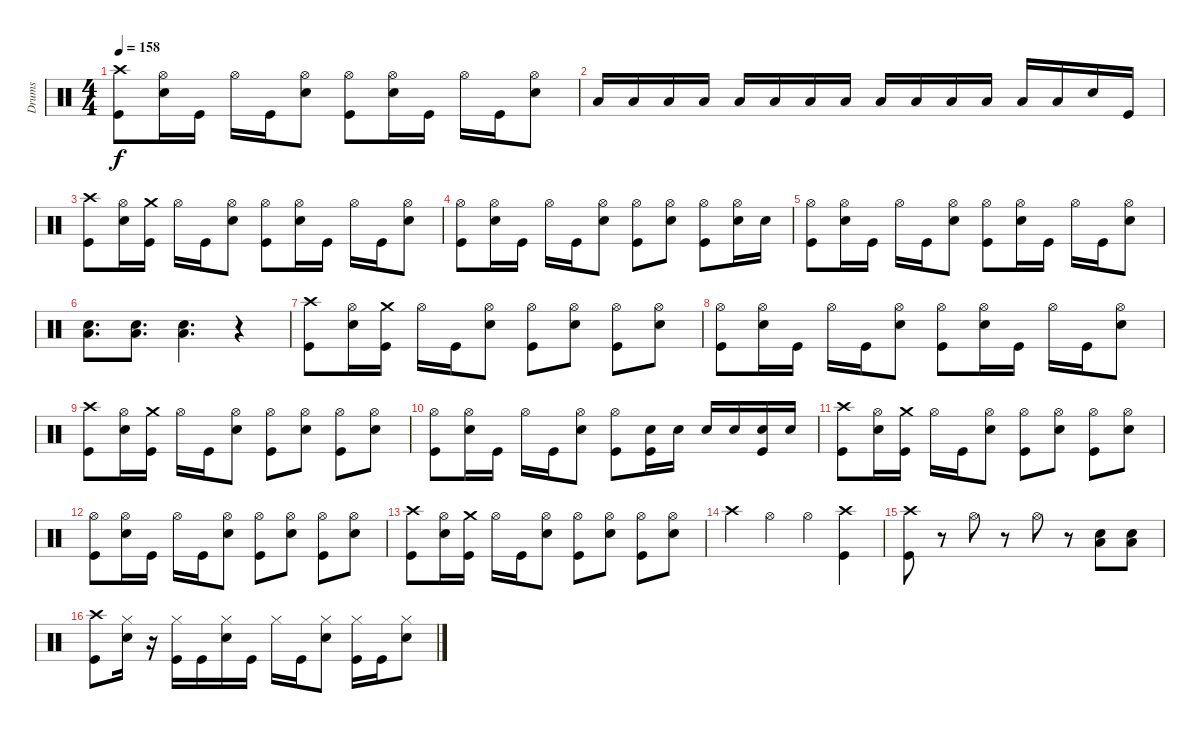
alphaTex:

\track ("Drums" "Drums") {instrument percussion}
\staff {score}
\articulation defaults
\ts (4 4)
\tempo 158
\clef neutral
\ks c
("Crash high (hit)" "Kick (hit)").8{dy f} ("Hi-Hat (open)" "Snare (hit) 2").16 "Kick (hit)".16 "Hi-Hat (open)".16 "Kick (hit)".16 ("Hi-Hat (open)" "Snare (hit) 2").8 ("Hi-Hat (open)" "Kick (hit)").8 ("Hi-Hat (open)" "Snare (hit) 2").16 "Kick (hit)".16 "Hi-Hat (open)".16 "Kick (hit)".16 ("Hi-Hat (open)" "Snare (hit) 2").8 |
"Low Tom (hit)".16 "Low Tom (hit)".16 "Low Tom (hit)".16 "Low Tom (hit)".16 "Low Tom (hit)".16 "Low Tom (hit)".16 "Low Tom (hit)".16 "Low Tom (hit)".16 "Low Tom (hit)".16 "Low Tom (hit)".16 "Low Tom (hit)".16 "Low Tom (hit)".16 "Low Tom (hit)".16 "Low Tom (hit)".16 "Snare (hit) 2".16 "Kick (hit)".16 |
("Crash high (hit)" "Kick (hit)").8 ("Hi-Hat (open)" "Snare (hit) 2").16 ("Crash medium (hit)" "Kick (hit)").16 "Hi-Hat (open)".16 "Kick (hit)".16 ("Hi-Hat (open)" "Snare (hit) 2").8 ("Hi-Hat (open)" "Kick (hit)").8 ("Hi-Hat (open)" "Snare (hit) 2").16 "Kick (hit)".16 "Hi-Hat (open)".16 "Kick (hit)".16 ("Hi-Hat (open)" "Snare (hit) 2").8 |
("Hi-Hat (open)" "Kick (hit)").8 ("Hi-Hat (open)" "Snare (hit) 2").16 "Kick (hit)".16 "Hi-Hat (open)".16 "Kick (hit)".16 ("Hi-Hat (open)" "Snare (hit) 2").8 ("Hi-Hat (open)" "Kick (hit)").8 ("Hi-Hat (open)" "Snare (hit) 2").8 ("Hi-Hat (open)" "Kick (hit)").8 ("Hi-Hat (open)" "Snare (hit) 2").16 "Snare (hit) 2".16 |
("Hi-Hat (open)" "Kick (hit)").8 ("Hi-Hat (open)" "Snare (hit) 2").16 "Kick (hit)".16 "Hi-Hat (open)".16 "Kick (hit)".16 ("Hi-Hat (open)" "Snare (hit) 2").8 ("Hi-Hat (open)" "Kick (hit)").8 ("Hi-Hat (open)" "Snare (hit) 2").16 "Kick (hit)".16 "Hi-Hat (open)".16 "Kick (hit)".16 ("Hi-Hat (open)" "Snare (hit) 2").8 |
("Snare (hit) 2" "Low Tom (hit)").8{d} ("Snare (hit) 2" "Low Tom (hit)").8{d} ("Snare (hit) 2" "Low Tom (hit)").4{d} r.4 |
("Crash high (hit)" "Kick (hit)").8 ("Hi-Hat (open)" "Snare (hit) 2").16 ("Crash medium (hit)" "Kick (hit)").16 "Hi-Hat (open)".16 "Kick (hit)".16 ("Hi-Hat (open)" "Snare (hit) 2").8 ("Hi-Hat (open)" "Kick (hit)").8 ("Hi-Hat (open)" "Snare (hit) 2").8 ("Hi-Hat (open)" "Kick (hit)").8 ("Hi-Hat (open)" "Snare (hit) 2").8 |
("Hi-Hat (open)" "Kick (hit)").8 ("Hi-Hat (open)" "Snare (hit) 2").16 "Kick (hit)".16 "Hi-Hat (open)".16 "Kick (hit)".16 ("Hi-Hat (open)" "Snare (hit) 2").8 ("Hi-Hat (open)" "Kick (hit)").8 ("Hi-Hat (open)" "Snare (hit) 2").16 "Kick (hit)".16 "Hi-Hat (open)".16 "Kick (hit)".16 ("Hi-Hat (open)" "Snare (hit) 2").8 |
("Crash high (hit)" "Kick (hit)").8 ("Hi-Hat (open)" "Snare (hit) 2").16 ("Crash medium (hit)" "Kick (hit)").16 "Hi-Hat (open)".16 "Kick (hit)".16 ("Hi-Hat (open)" "Snare (hit) 2").8 ("Hi-Hat (open)" "Kick (hit)").8 ("Hi-Hat (open)" "Snare (hit) 2").8 ("Hi-Hat (open)" "Kick (hit)").8 ("Hi-Hat (open)" "Snare (hit) 2").8 |
("Hi-Hat (open)" "Kick (hit)").8 ("Hi-Hat (open)" "Snare (hit) 2").16 "Kick (hit)".16 "Hi-Hat (open)".16 "Kick (hit)".16 ("Hi-Hat (open)" "Snare (hit) 2").8 ("Hi-Hat (open)" "Kick (hit)").8 ("Kick (hit)" "Snare (hit) 2").16 "Snare (hit) 2".16 "Snare (hit) 2".16 "Snare (hit) 2".16 ("Kick (hit)" "Snare (hit) 2").16 "Snare (hit) 2".16 |
("Crash high (hit)" "Kick (hit)").8 ("Hi-Hat (open)" "Snare (hit) 2").16 ("Crash medium (hit)" "Kick (hit)").16 "Hi-Hat (open)".16 "Kick (hit)".16 ("Hi-Hat (open)" "Snare (hit) 2").8 ("Hi-Hat (open)" "Kick (hit)").8 ("Hi-Hat (open)" "Snare (hit) 2").8 ("Hi-Hat (open)" "Kick (hit)").8 ("Hi-Hat (open)" "Snare (hit) 2").8 |
("Hi-Hat (open)" "Kick (hit)").8 ("Hi-Hat (open)" "Snare (hit) 2").16 "Kick (hit)".16 "Hi-Hat (open)".16 "Kick (hit)".16 ("Hi-Hat (open)" "Snare (hit) 2").8 ("Hi-Hat (open)" "Kick (hit)").8 ("Hi-Hat (open)" "Snare (hit) 2").8 ("Hi-Hat (open)" "Kick (hit)").8 ("Hi-Hat (open)" "Snare (hit) 2").8 |
("Crash high (hit)" "Kick (hit)").8 ("Hi-Hat (open)" "Snare (hit) 2").16 ("Crash medium (hit)" "Kick (hit)").16 "Hi-Hat (open)".16 "Kick (hit)".16 ("Hi-Hat (open)" "Snare (hit) 2").8 ("Hi-Hat (open)" "Kick (hit)").8 ("Hi-Hat (open)" "Snare (hit) 2").8 ("Hi-Hat (open)" "Kick (hit)").8 ("Hi-Hat (open)" "Snare (hit) 2").8 |
"Crash high (hit)".4 "Hi-Hat (open)".4 "Hi-Hat (open)".4 ("Crash high (hit)" "Kick (hit)").4 |
("Crash high (hit)" "Kick (hit)").8 r.8 "Hi-Hat (open)".8 r.8 "Hi-Hat (open)".8 r.8 ("Snare (hit) 2" "Low Tom (hit)").8 ("Snare (hit) 2" "Low Tom (hit)").8 |
("Crash high (hit)" "Kick (hit)").8 ("Hi-Hat (closed)" "Snare (hit) 2").16 r.16 ("Hi-Hat (closed)" "Kick (hit)").16 "Kick (hit)".16 ("Hi-Hat (closed)" "Snare (hit) 2").16 "Kick (hit)".16 "Hi-Hat (closed)".16 "Kick (hit)".16 ("Hi-Hat (closed)" "Snare (hit) 2").8 ("Hi-Hat (closed)" "Kick (hit)").16 "Kick (hit)".16 ("Hi-Hat (closed)" "Snare (hit) 2").8
